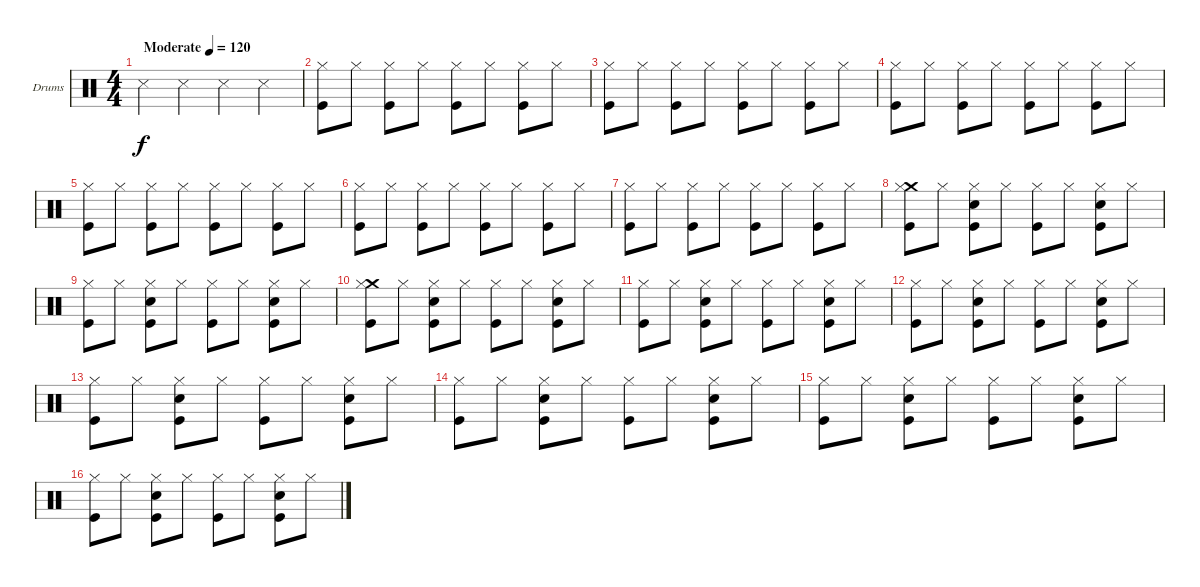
\bracketExtendMode nobrackets
\firstSystemTrackNameOrientation horizontal
\otherSystemsTrackNameOrientation horizontal
\track ("Drumkit" "Drums") {instrument percussion}
\staff {score}
\articulation defaults
\ts (4 4)
\beaming (8 2 2 2 2)
\tempo (120 "Moderate")
\clef neutral
\ks c "Snare (side stick) 3".4{dy f} "Snare (side stick) 3".4 "Snare (side stick) 3".4 "Snare (side stick) 3".4
|
("Kick (hit)" "Hi-Hat (closed)").8 "Hi-Hat (closed)".8 ("Kick (hit)" "Hi-Hat (closed)").8 "Hi-Hat (closed)".8 ("Kick (hit)" "Hi-Hat (closed)").8 "Hi-Hat (closed)".8 ("Kick (hit)" "Hi-Hat (closed)").8 "Hi-Hat (closed)".8 |
("Kick (hit)" "Hi-Hat (closed)").8 "Hi-Hat (closed)".8 ("Kick (hit)" "Hi-Hat (closed)").8 "Hi-Hat (closed)".8 ("Kick (hit)" "Hi-Hat (closed)").8 "Hi-Hat (closed)".8 ("Kick (hit)" "Hi-Hat (closed)").8 "Hi-Hat (closed)".8 |
("Kick (hit)" "Hi-Hat (closed)").8 "Hi-Hat (closed)".8 ("Kick (hit)" "Hi-Hat (closed)").8 "Hi-Hat (closed)".8 ("Kick (hit)" "Hi-Hat (closed)").8 "Hi-Hat (closed)".8 ("Kick (hit)" "Hi-Hat (closed)").8 "Hi-Hat (closed)".8 |
("Kick (hit)" "Hi-Hat (closed)").8 "Hi-Hat (closed)".8 ("Kick (hit)" "Hi-Hat (closed)").8 "Hi-Hat (closed)".8 ("Kick (hit)" "Hi-Hat (closed)").8 "Hi-Hat (closed)".8 ("Kick (hit)" "Hi-Hat (closed)").8 "Hi-Hat (closed)".8 |
("Kick (hit)" "Hi-Hat (closed)").8 "Hi-Hat (closed)".8 ("Kick (hit)" "Hi-Hat (closed)").8 "Hi-Hat (closed)".8 ("Kick (hit)" "Hi-Hat (closed)").8 "Hi-Hat (closed)".8 ("Kick (hit)" "Hi-Hat (closed)").8 "Hi-Hat (closed)".8 |
("Kick (hit)" "Hi-Hat (closed)").8 "Hi-Hat (closed)".8 ("Kick (hit)" "Hi-Hat (closed)").8 "Hi-Hat (closed)".8 ("Kick (hit)" "Hi-Hat (closed)").8 "Hi-Hat (closed)".8 ("Kick (hit)" "Hi-Hat (closed)").8 "Hi-Hat (closed)".8 |
("Kick (hit)" "Crash medium (hit)" "Hi-Hat (closed)").8 "Hi-Hat (closed)".8 ("Kick (hit)" "Snare (hit) 2" "Hi-Hat (closed)").8 "Hi-Hat (closed)".8 ("Kick (hit)" "Hi-Hat (closed)").8 "Hi-Hat (closed)".8 ("Kick (hit)" "Snare (hit) 2" "Hi-Hat (closed)").8 "Hi-Hat (closed)".8 |
("Kick (hit)" "Hi-Hat (closed)").8 "Hi-Hat (closed)".8 ("Kick (hit)" "Snare (hit) 2" "Hi-Hat (closed)").8 "Hi-Hat (closed)".8 ("Kick (hit)" "Hi-Hat (closed)").8 "Hi-Hat (closed)".8 ("Kick (hit)" "Snare (hit) 2" "Hi-Hat (closed)").8 "Hi-Hat (closed)".8 |
("Kick (hit)" "Crash medium (hit)" "Hi-Hat (closed)").8 "Hi-Hat (closed)".8 ("Kick (hit)" "Snare (hit) 2" "Hi-Hat (closed)").8 "Hi-Hat (closed)".8 ("Kick (hit)" "Hi-Hat (closed)").8 "Hi-Hat (closed)".8 ("Kick (hit)" "Snare (hit) 2" "Hi-Hat (closed)").8 "Hi-Hat (closed)".8 |
("Kick (hit)" "Hi-Hat (closed)").8 "Hi-Hat (closed)".8 ("Kick (hit)" "Snare (hit) 2" "Hi-Hat (closed)").8 "Hi-Hat (closed)".8 ("Kick (hit)" "Hi-Hat (closed)").8 "Hi-Hat (closed)".8 ("Kick (hit)" "Snare (hit) 2" "Hi-Hat (closed)").8 "Hi-Hat (closed)".8 |
("Kick (hit)" "Hi-Hat (closed)").8 "Hi-Hat (closed)".8 ("Kick (hit)" "Snare (hit) 2" "Hi-Hat (closed)").8 "Hi-Hat (closed)".8 ("Kick (hit)" "Hi-Hat (closed)").8 "Hi-Hat (closed)".8 ("Kick (hit)" "Snare (hit) 2" "Hi-Hat (closed)").8 "Hi-Hat (closed)".8 |
("Kick (hit)" "Hi-Hat (closed)").8 "Hi-Hat (closed)".8 ("Kick (hit)" "Snare (hit) 2" "Hi-Hat (closed)").8 "Hi-Hat (closed)".8 ("Kick (hit)" "Hi-Hat (closed)").8 "Hi-Hat (closed)".8 ("Kick (hit)" "Snare (hit) 2" "Hi-Hat (closed)").8 "Hi-Hat (closed)".8 |
("Kick (hit)" "Hi-Hat (closed)").8 "Hi-Hat (closed)".8 ("Kick (hit)" "Snare (hit) 2" "Hi-Hat (closed)").8 "Hi-Hat (closed)".8 ("Kick (hit)" "Hi-Hat (closed)").8 "Hi-Hat (closed)".8 ("Kick (hit)" "Snare (hit) 2" "Hi-Hat (closed)").8 "Hi-Hat (closed)".8 |
("Kick (hit)" "Hi-Hat (closed)").8 "Hi-Hat (closed)".8 ("Kick (hit)" "Snare (hit) 2" "Hi-Hat (closed)").8 "Hi-Hat (closed)".8 ("Kick (hit)" "Hi-Hat (closed)").8 "Hi-Hat (closed)".8 ("Kick (hit)" "Snare (hit) 2" "Hi-Hat (closed)").8 "Hi-Hat (closed)".8 |
("Hi-Hat (closed)" "Kick (hit)").8 "Hi-Hat (closed)".8 ("Kick (hit)" "Snare (hit) 2" "Hi-Hat (closed)").8 "Hi-Hat (closed)".8 ("Kick (hit)" "Hi-Hat (closed)").8 "Hi-Hat (closed)".8 ("Kick (hit)" "Snare (hit) 2" "Hi-Hat (closed)").8 "Hi-Hat (closed)".8
